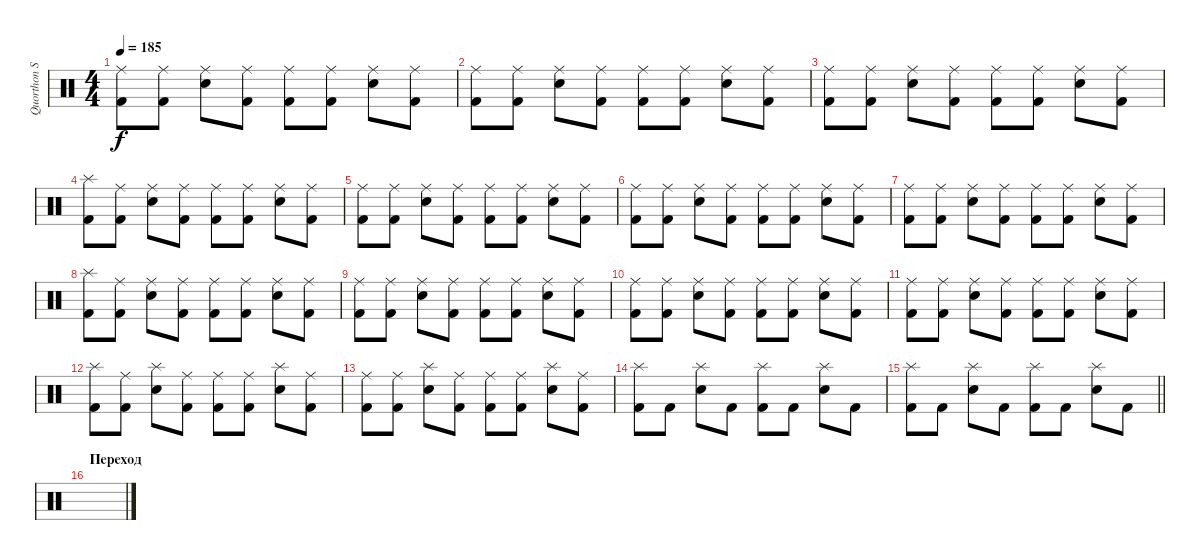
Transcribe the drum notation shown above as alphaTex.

\track ("Quorthon Seth" "Quorthon S") {instrument percussion}
\staff {score}
\articulation defaults
\ts (4 4)
\tempo 185
\clef neutral
\ks c
("Ride (middle)" "Kick (hit) 2").8{dy f} ("Ride (middle)" "Kick (hit) 2").8 ("Ride (middle)" "Electric Snare (hit)").8 ("Ride (middle)" "Kick (hit) 2").8 ("Ride (middle)" "Kick (hit) 2").8 ("Ride (middle)" "Kick (hit) 2").8 ("Ride (middle)" "Electric Snare (hit)").8 ("Ride (middle)" "Kick (hit) 2").8 |
("Ride (middle)" "Kick (hit) 2").8 ("Ride (middle)" "Kick (hit) 2").8 ("Ride (middle)" "Electric Snare (hit)").8 ("Ride (middle)" "Kick (hit) 2").8 ("Ride (middle)" "Kick (hit) 2").8 ("Ride (middle)" "Kick (hit) 2").8 ("Ride (middle)" "Electric Snare (hit)").8 ("Ride (middle)" "Kick (hit) 2").8 |
("Ride (middle)" "Kick (hit) 2").8 ("Ride (middle)" "Kick (hit) 2").8 ("Ride (middle)" "Electric Snare (hit)").8 ("Ride (middle)" "Kick (hit) 2").8 ("Ride (middle)" "Kick (hit) 2").8 ("Ride (middle)" "Kick (hit) 2").8 ("Ride (middle)" "Electric Snare (hit)").8 ("Ride (middle)" "Kick (hit) 2").8 |
("Splash (hit)" "Kick (hit) 2").8 ("Ride (middle)" "Kick (hit) 2").8 ("Ride (middle)" "Electric Snare (hit)").8 ("Ride (middle)" "Kick (hit) 2").8 ("Ride (middle)" "Kick (hit) 2").8 ("Ride (middle)" "Kick (hit) 2").8 ("Ride (middle)" "Electric Snare (hit)").8 ("Ride (middle)" "Kick (hit) 2").8 |
("Ride (middle)" "Kick (hit) 2").8 ("Ride (middle)" "Kick (hit) 2").8 ("Ride (middle)" "Electric Snare (hit)").8 ("Ride (middle)" "Kick (hit) 2").8 ("Ride (middle)" "Kick (hit) 2").8 ("Ride (middle)" "Kick (hit) 2").8 ("Ride (middle)" "Electric Snare (hit)").8 ("Ride (middle)" "Kick (hit) 2").8 |
("Ride (middle)" "Kick (hit) 2").8 ("Ride (middle)" "Kick (hit) 2").8 ("Ride (middle)" "Electric Snare (hit)").8 ("Ride (middle)" "Kick (hit) 2").8 ("Ride (middle)" "Kick (hit) 2").8 ("Ride (middle)" "Kick (hit) 2").8 ("Ride (middle)" "Electric Snare (hit)").8 ("Ride (middle)" "Kick (hit) 2").8 |
("Ride (middle)" "Kick (hit) 2").8 ("Ride (middle)" "Kick (hit) 2").8 ("Ride (middle)" "Electric Snare (hit)").8 ("Ride (middle)" "Kick (hit) 2").8 ("Ride (middle)" "Kick (hit) 2").8 ("Ride (middle)" "Kick (hit) 2").8 ("Ride (middle)" "Electric Snare (hit)").8 ("Ride (middle)" "Kick (hit) 2").8 |
("Splash (hit)" "Kick (hit) 2").8 ("Ride (middle)" "Kick (hit) 2").8 ("Ride (middle)" "Electric Snare (hit)").8 ("Ride (middle)" "Kick (hit) 2").8 ("Ride (middle)" "Kick (hit) 2").8 ("Ride (middle)" "Kick (hit) 2").8 ("Ride (middle)" "Electric Snare (hit)").8 ("Ride (middle)" "Kick (hit) 2").8 |
("Ride (middle)" "Kick (hit) 2").8 ("Ride (middle)" "Kick (hit) 2").8 ("Ride (middle)" "Electric Snare (hit)").8 ("Ride (middle)" "Kick (hit) 2").8 ("Ride (middle)" "Kick (hit) 2").8 ("Ride (middle)" "Kick (hit) 2").8 ("Ride (middle)" "Electric Snare (hit)").8 ("Ride (middle)" "Kick (hit) 2").8 |
("Ride (middle)" "Kick (hit) 2").8 ("Ride (middle)" "Kick (hit) 2").8 ("Ride (middle)" "Electric Snare (hit)").8 ("Ride (middle)" "Kick (hit) 2").8 ("Ride (middle)" "Kick (hit) 2").8 ("Ride (middle)" "Kick (hit) 2").8 ("Ride (middle)" "Electric Snare (hit)").8 ("Ride (middle)" "Kick (hit) 2").8 |
("Ride (middle)" "Kick (hit) 2").8 ("Ride (middle)" "Kick (hit) 2").8 ("Ride (middle)" "Electric Snare (hit)").8 ("Ride (middle)" "Kick (hit) 2").8 ("Ride (middle)" "Kick (hit) 2").8 ("Ride (middle)" "Kick (hit) 2").8 ("Ride (middle)" "Electric Snare (hit)").8 ("Ride (middle)" "Kick (hit) 2").8 |
("Splash (hit)" "Kick (hit) 2").8 ("Ride (middle)" "Kick (hit) 2").8 ("Splash (hit)" "Electric Snare (hit)").8 ("Ride (middle)" "Kick (hit) 2").8 ("Ride (middle)" "Kick (hit) 2").8 ("Ride (middle)" "Kick (hit) 2").8 ("Splash (hit)" "Electric Snare (hit)").8 ("Ride (middle)" "Kick (hit) 2").8 |
("Ride (middle)" "Kick (hit) 2").8 ("Ride (middle)" "Kick (hit) 2").8 ("Splash (hit)" "Electric Snare (hit)").8 ("Ride (middle)" "Kick (hit) 2").8 ("Ride (middle)" "Kick (hit) 2").8 ("Ride (middle)" "Kick (hit) 2").8 ("Splash (hit)" "Electric Snare (hit)").8 ("Ride (middle)" "Kick (hit) 2").8 |
("Splash (hit)" "Kick (hit) 2").8 "Kick (hit) 2".8 ("Splash (hit)" "Electric Snare (hit)").8 "Kick (hit) 2".8 ("Splash (hit)" "Kick (hit) 2").8 "Kick (hit) 2".8 ("Splash (hit)" "Electric Snare (hit)").8 "Kick (hit) 2".8 |
\barLineRight lightlight
("Splash (hit)" "Kick (hit) 2").8 "Kick (hit) 2".8 ("Splash (hit)" "Electric Snare (hit)").8 "Kick (hit) 2".8 ("Splash (hit)" "Kick (hit) 2").8 "Kick (hit) 2".8 ("Splash (hit)" "Electric Snare (hit)").8 "Kick (hit) 2".8 |
\section ("" "Переход")
